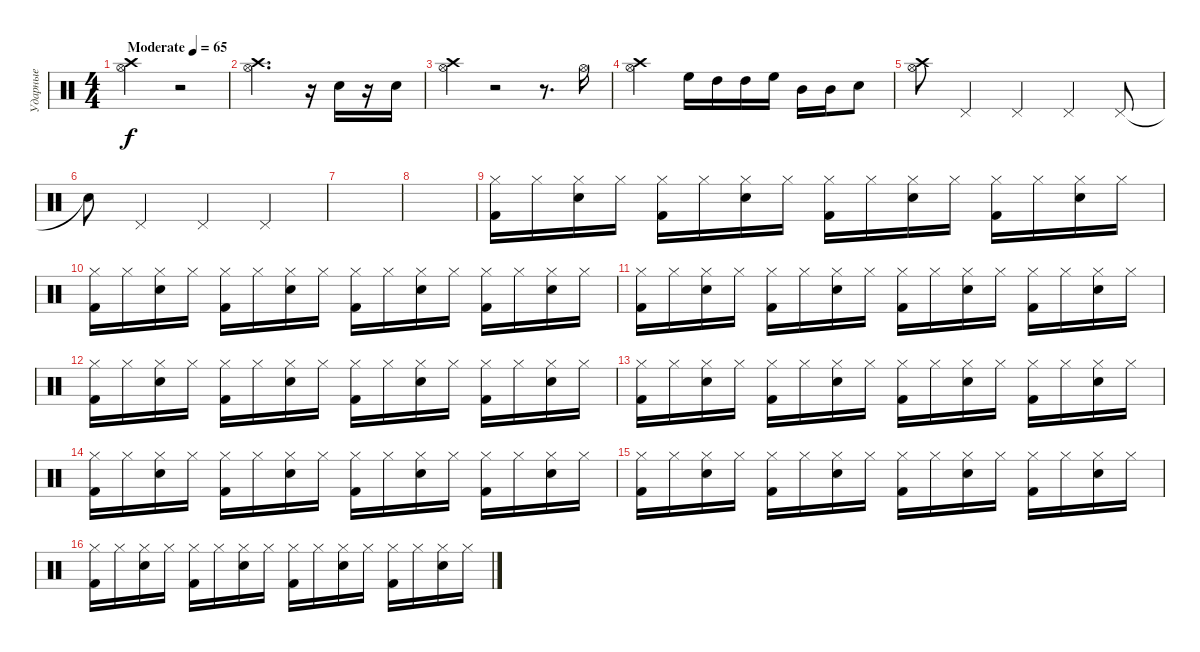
\track ("Ударные" "Ударные") {instrument percussion}
\staff {score}
\articulation defaults
\ts (4 4)
\tempo (65 "Moderate")
\clef neutral
\ks c
("Hi-Hat (open)" "Crash high (hit)").2{dy f} r.2 |
("Hi-Hat (open)" "Crash high (hit)").2{d} r.16 "Snare (hit) 2".16 r.16 "Snare (hit) 2".16 |
("Hi-Hat (open)" "Crash high (hit)").4 r.2 r.8{d} "Hi-Hat (open)".16 |
("Hi-Hat (open)" "Crash high (hit)").2 "High Floor Tom (hit)".16 "High Tom (hit)".16 "High Tom (hit)".16 "High Floor Tom (hit)".16 "Mid Tom (hit)".16 "Mid Tom (hit)".16 "Snare (hit) 2".8 |
("Hi-Hat (open)" "Crash high (hit)").8 "Pedal Hi-Hat (hit)".4 "Pedal Hi-Hat (hit)".4 "Pedal Hi-Hat (hit)".4 "Pedal Hi-Hat (hit)".8 |
"Snare (hit)"{t}.8 "Pedal Hi-Hat (hit)".4 "Pedal Hi-Hat (hit)".4 "Pedal Hi-Hat (hit)".4 |
|
|
("Hi-Hat (closed)" "Kick (hit) 2").16 "Hi-Hat (closed)".16 ("Hi-Hat (closed)" "Snare (hit) 2").16 "Hi-Hat (closed)".16 ("Hi-Hat (closed)" "Kick (hit) 2").16 "Hi-Hat (closed)".16 ("Hi-Hat (closed)" "Snare (hit) 2").16 "Hi-Hat (closed)".16 ("Hi-Hat (closed)" "Kick (hit) 2").16 "Hi-Hat (closed)".16 ("Hi-Hat (closed)" "Snare (hit) 2").16 "Hi-Hat (closed)".16 ("Hi-Hat (closed)" "Kick (hit) 2").16 "Hi-Hat (closed)".16 ("Hi-Hat (closed)" "Snare (hit) 2").16 "Hi-Hat (closed)".16 |
("Hi-Hat (closed)" "Kick (hit) 2").16 "Hi-Hat (closed)".16 ("Hi-Hat (closed)" "Snare (hit) 2").16 "Hi-Hat (closed)".16 ("Hi-Hat (closed)" "Kick (hit) 2").16 "Hi-Hat (closed)".16 ("Hi-Hat (closed)" "Snare (hit) 2").16 "Hi-Hat (closed)".16 ("Hi-Hat (closed)" "Kick (hit) 2").16 "Hi-Hat (closed)".16 ("Hi-Hat (closed)" "Snare (hit) 2").16 "Hi-Hat (closed)".16 ("Hi-Hat (closed)" "Kick (hit) 2").16 "Hi-Hat (closed)".16 ("Hi-Hat (closed)" "Snare (hit) 2").16 "Hi-Hat (closed)".16 |
("Hi-Hat (closed)" "Kick (hit) 2").16 "Hi-Hat (closed)".16 ("Hi-Hat (closed)" "Snare (hit) 2").16 "Hi-Hat (closed)".16 ("Hi-Hat (closed)" "Kick (hit) 2").16 "Hi-Hat (closed)".16 ("Hi-Hat (closed)" "Snare (hit) 2").16 "Hi-Hat (closed)".16 ("Hi-Hat (closed)" "Kick (hit) 2").16 "Hi-Hat (closed)".16 ("Hi-Hat (closed)" "Snare (hit) 2").16 "Hi-Hat (closed)".16 ("Hi-Hat (closed)" "Kick (hit) 2").16 "Hi-Hat (closed)".16 ("Hi-Hat (closed)" "Snare (hit) 2").16 "Hi-Hat (closed)".16 |
("Hi-Hat (closed)" "Kick (hit) 2").16 "Hi-Hat (closed)".16 ("Hi-Hat (closed)" "Snare (hit) 2").16 "Hi-Hat (closed)".16 ("Hi-Hat (closed)" "Kick (hit) 2").16 "Hi-Hat (closed)".16 ("Hi-Hat (closed)" "Snare (hit) 2").16 "Hi-Hat (closed)".16 ("Hi-Hat (closed)" "Kick (hit) 2").16 "Hi-Hat (closed)".16 ("Hi-Hat (closed)" "Snare (hit) 2").16 "Hi-Hat (closed)".16 ("Hi-Hat (closed)" "Kick (hit) 2").16 "Hi-Hat (closed)".16 ("Hi-Hat (closed)" "Snare (hit) 2").16 "Hi-Hat (closed)".16 |
("Hi-Hat (closed)" "Kick (hit) 2").16 "Hi-Hat (closed)".16 ("Hi-Hat (closed)" "Snare (hit) 2").16 "Hi-Hat (closed)".16 ("Hi-Hat (closed)" "Kick (hit) 2").16 "Hi-Hat (closed)".16 ("Hi-Hat (closed)" "Snare (hit) 2").16 "Hi-Hat (closed)".16 ("Hi-Hat (closed)" "Kick (hit) 2").16 "Hi-Hat (closed)".16 ("Hi-Hat (closed)" "Snare (hit) 2").16 "Hi-Hat (closed)".16 ("Hi-Hat (closed)" "Kick (hit) 2").16 "Hi-Hat (closed)".16 ("Hi-Hat (closed)" "Snare (hit) 2").16 "Hi-Hat (closed)".16 |
("Hi-Hat (closed)" "Kick (hit) 2").16 "Hi-Hat (closed)".16 ("Hi-Hat (closed)" "Snare (hit) 2").16 "Hi-Hat (closed)".16 ("Hi-Hat (closed)" "Kick (hit) 2").16 "Hi-Hat (closed)".16 ("Hi-Hat (closed)" "Snare (hit) 2").16 "Hi-Hat (closed)".16 ("Hi-Hat (closed)" "Kick (hit) 2").16 "Hi-Hat (closed)".16 ("Hi-Hat (closed)" "Snare (hit) 2").16 "Hi-Hat (closed)".16 ("Hi-Hat (closed)" "Kick (hit) 2").16 "Hi-Hat (closed)".16 ("Hi-Hat (closed)" "Snare (hit) 2").16 "Hi-Hat (closed)".16 |
("Hi-Hat (closed)" "Kick (hit) 2").16 "Hi-Hat (closed)".16 ("Hi-Hat (closed)" "Snare (hit) 2").16 "Hi-Hat (closed)".16 ("Hi-Hat (closed)" "Kick (hit) 2").16 "Hi-Hat (closed)".16 ("Hi-Hat (closed)" "Snare (hit) 2").16 "Hi-Hat (closed)".16 ("Hi-Hat (closed)" "Kick (hit) 2").16 "Hi-Hat (closed)".16 ("Hi-Hat (closed)" "Snare (hit) 2").16 "Hi-Hat (closed)".16 ("Hi-Hat (closed)" "Kick (hit) 2").16 "Hi-Hat (closed)".16 ("Hi-Hat (closed)" "Snare (hit) 2").16 "Hi-Hat (closed)".16 |
("Hi-Hat (closed)" "Kick (hit) 2").16 "Hi-Hat (closed)".16 ("Hi-Hat (closed)" "Snare (hit) 2").16 "Hi-Hat (closed)".16 ("Hi-Hat (closed)" "Kick (hit) 2").16 "Hi-Hat (closed)".16 ("Hi-Hat (closed)" "Snare (hit) 2").16 "Hi-Hat (closed)".16 ("Hi-Hat (closed)" "Kick (hit) 2").16 "Hi-Hat (closed)".16 ("Hi-Hat (closed)" "Snare (hit) 2").16 "Hi-Hat (closed)".16 ("Hi-Hat (closed)" "Kick (hit) 2").16 "Hi-Hat (closed)".16 ("Hi-Hat (closed)" "Snare (hit) 2").16 "Hi-Hat (closed)".16
